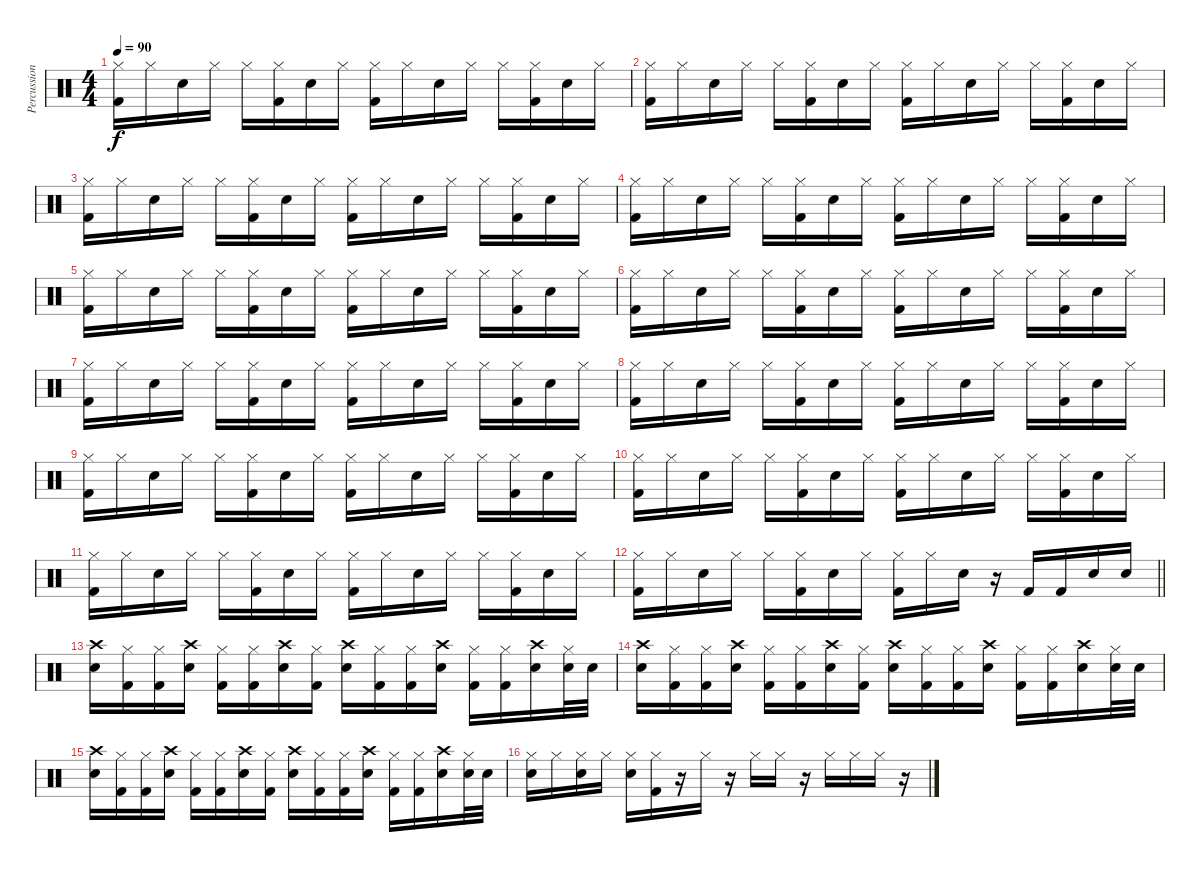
\track ("Percussion" "Percussion") {instrument percussion}
\staff {score}
\articulation defaults
\ts (4 4)
\tempo 90
\clef neutral
\ks c
("Hi-Hat (closed)" "Kick (hit) 2").16{dy f} "Hi-Hat (closed)".16 "Snare (hit) 2".16 "Hi-Hat (closed)".16 "Hi-Hat (closed)".16 ("Hi-Hat (closed)" "Kick (hit) 2").16 "Snare (hit) 2".16 "Hi-Hat (closed)".16 ("Hi-Hat (closed)" "Kick (hit) 2").16 "Hi-Hat (closed)".16 "Snare (hit) 2".16 "Hi-Hat (closed)".16 "Hi-Hat (closed)".16 ("Hi-Hat (closed)" "Kick (hit) 2").16 "Snare (hit) 2".16 "Hi-Hat (closed)".16 |
("Hi-Hat (closed)" "Kick (hit) 2").16 "Hi-Hat (closed)".16 "Snare (hit) 2".16 "Hi-Hat (closed)".16 "Hi-Hat (closed)".16 ("Hi-Hat (closed)" "Kick (hit) 2").16 "Snare (hit) 2".16 "Hi-Hat (closed)".16 ("Hi-Hat (closed)" "Kick (hit) 2").16 "Hi-Hat (closed)".16 "Snare (hit) 2".16 "Hi-Hat (closed)".16 "Hi-Hat (closed)".16 ("Hi-Hat (closed)" "Kick (hit) 2").16 "Snare (hit) 2".16 "Hi-Hat (closed)".16 |
("Hi-Hat (closed)" "Kick (hit) 2").16 "Hi-Hat (closed)".16 "Snare (hit) 2".16 "Hi-Hat (closed)".16 "Hi-Hat (closed)".16 ("Hi-Hat (closed)" "Kick (hit) 2").16 "Snare (hit) 2".16 "Hi-Hat (closed)".16 ("Hi-Hat (closed)" "Kick (hit) 2").16 "Hi-Hat (closed)".16 "Snare (hit) 2".16 "Hi-Hat (closed)".16 "Hi-Hat (closed)".16 ("Hi-Hat (closed)" "Kick (hit) 2").16 "Snare (hit) 2".16 "Hi-Hat (closed)".16 |
("Hi-Hat (closed)" "Kick (hit) 2").16 "Hi-Hat (closed)".16 "Snare (hit) 2".16 "Hi-Hat (closed)".16 "Hi-Hat (closed)".16 ("Hi-Hat (closed)" "Kick (hit) 2").16 "Snare (hit) 2".16 "Hi-Hat (closed)".16 ("Hi-Hat (closed)" "Kick (hit) 2").16 "Hi-Hat (closed)".16 "Snare (hit) 2".16 "Hi-Hat (closed)".16 "Hi-Hat (closed)".16 ("Hi-Hat (closed)" "Kick (hit) 2").16 "Snare (hit) 2".16 "Hi-Hat (closed)".16 |
("Hi-Hat (closed)" "Kick (hit) 2").16 "Hi-Hat (closed)".16 "Snare (hit) 2".16 "Hi-Hat (closed)".16 "Hi-Hat (closed)".16 ("Hi-Hat (closed)" "Kick (hit) 2").16 "Snare (hit) 2".16 "Hi-Hat (closed)".16 ("Hi-Hat (closed)" "Kick (hit) 2").16 "Hi-Hat (closed)".16 "Snare (hit) 2".16 "Hi-Hat (closed)".16 "Hi-Hat (closed)".16 ("Hi-Hat (closed)" "Kick (hit) 2").16 "Snare (hit) 2".16 "Hi-Hat (closed)".16 |
("Hi-Hat (closed)" "Kick (hit) 2").16 "Hi-Hat (closed)".16 "Snare (hit) 2".16 "Hi-Hat (closed)".16 "Hi-Hat (closed)".16 ("Hi-Hat (closed)" "Kick (hit) 2").16 "Snare (hit) 2".16 "Hi-Hat (closed)".16 ("Hi-Hat (closed)" "Kick (hit) 2").16 "Hi-Hat (closed)".16 "Snare (hit) 2".16 "Hi-Hat (closed)".16 "Hi-Hat (closed)".16 ("Hi-Hat (closed)" "Kick (hit) 2").16 "Snare (hit) 2".16 "Hi-Hat (closed)".16 |
("Hi-Hat (closed)" "Kick (hit) 2").16 "Hi-Hat (closed)".16 "Snare (hit) 2".16 "Hi-Hat (closed)".16 "Hi-Hat (closed)".16 ("Hi-Hat (closed)" "Kick (hit) 2").16 "Snare (hit) 2".16 "Hi-Hat (closed)".16 ("Hi-Hat (closed)" "Kick (hit) 2").16 "Hi-Hat (closed)".16 "Snare (hit) 2".16 "Hi-Hat (closed)".16 "Hi-Hat (closed)".16 ("Hi-Hat (closed)" "Kick (hit) 2").16 "Snare (hit) 2".16 "Hi-Hat (closed)".16 |
("Hi-Hat (closed)" "Kick (hit) 2").16 "Hi-Hat (closed)".16 "Snare (hit) 2".16 "Hi-Hat (closed)".16 "Hi-Hat (closed)".16 ("Hi-Hat (closed)" "Kick (hit) 2").16 "Snare (hit) 2".16 "Hi-Hat (closed)".16 ("Hi-Hat (closed)" "Kick (hit) 2").16 "Hi-Hat (closed)".16 "Snare (hit) 2".16 "Hi-Hat (closed)".16 "Hi-Hat (closed)".16 ("Hi-Hat (closed)" "Kick (hit) 2").16 "Snare (hit) 2".16 "Hi-Hat (closed)".16 |
("Hi-Hat (closed)" "Kick (hit) 2").16 "Hi-Hat (closed)".16 "Snare (hit) 2".16 "Hi-Hat (closed)".16 "Hi-Hat (closed)".16 ("Hi-Hat (closed)" "Kick (hit) 2").16 "Snare (hit) 2".16 "Hi-Hat (closed)".16 ("Hi-Hat (closed)" "Kick (hit) 2").16 "Hi-Hat (closed)".16 "Snare (hit) 2".16 "Hi-Hat (closed)".16 "Hi-Hat (closed)".16 ("Hi-Hat (closed)" "Kick (hit) 2").16 "Snare (hit) 2".16 "Hi-Hat (closed)".16 |
("Hi-Hat (closed)" "Kick (hit) 2").16 "Hi-Hat (closed)".16 "Snare (hit) 2".16 "Hi-Hat (closed)".16 "Hi-Hat (closed)".16 ("Hi-Hat (closed)" "Kick (hit) 2").16 "Snare (hit) 2".16 "Hi-Hat (closed)".16 ("Hi-Hat (closed)" "Kick (hit) 2").16 "Hi-Hat (closed)".16 "Snare (hit) 2".16 "Hi-Hat (closed)".16 "Hi-Hat (closed)".16 ("Hi-Hat (closed)" "Kick (hit) 2").16 "Snare (hit) 2".16 "Hi-Hat (closed)".16 |
("Hi-Hat (closed)" "Kick (hit) 2").16 "Hi-Hat (closed)".16 "Snare (hit) 2".16 "Hi-Hat (closed)".16 "Hi-Hat (closed)".16 ("Hi-Hat (closed)" "Kick (hit) 2").16 "Snare (hit) 2".16 "Hi-Hat (closed)".16 ("Hi-Hat (closed)" "Kick (hit) 2").16 "Hi-Hat (closed)".16 "Snare (hit) 2".16 "Hi-Hat (closed)".16 "Hi-Hat (closed)".16 ("Hi-Hat (closed)" "Kick (hit) 2").16 "Snare (hit) 2".16 "Hi-Hat (closed)".16 |
\barLineRight lightlight
("Hi-Hat (closed)" "Kick (hit) 2").16 "Hi-Hat (closed)".16 "Snare (hit) 2".16 "Hi-Hat (closed)".16 "Hi-Hat (closed)".16 ("Hi-Hat (closed)" "Kick (hit) 2").16 "Snare (hit) 2".16 "Hi-Hat (closed)".16 ("Hi-Hat (closed)" "Kick (hit) 2").16 "Hi-Hat (closed)".16 "Snare (hit) 2".16 r.16 "Kick (hit) 2".16 "Kick (hit) 2".16 "Snare (hit) 2".16 "Snare (hit) 2".16 |
("Crash high (hit)" "Snare (hit) 2").16 ("Hi-Hat (closed)" "Kick (hit) 2").16 ("Hi-Hat (closed)" "Kick (hit) 2").16 ("Crash high (hit)" "Snare (hit) 2").16 ("Hi-Hat (closed)" "Kick (hit) 2").16 ("Hi-Hat (closed)" "Kick (hit) 2").16 ("Crash high (hit)" "Snare (hit) 2").16 ("Hi-Hat (closed)" "Kick (hit) 2").16 ("Crash high (hit)" "Snare (hit) 2").16 ("Hi-Hat (closed)" "Kick (hit) 2").16 ("Hi-Hat (closed)" "Kick (hit) 2").16 ("Crash high (hit)" "Snare (hit) 2").16 ("Hi-Hat (closed)" "Kick (hit) 2").16 ("Hi-Hat (closed)" "Kick (hit) 2").16 ("Crash high (hit)" "Snare (hit) 2").16 ("Hi-Hat (closed)" "Snare (hit) 2").32 "Snare (hit) 2".32 |
("Crash high (hit)" "Snare (hit) 2").16 ("Hi-Hat (closed)" "Kick (hit) 2").16 ("Hi-Hat (closed)" "Kick (hit) 2").16 ("Crash high (hit)" "Snare (hit) 2").16 ("Hi-Hat (closed)" "Kick (hit) 2").16 ("Hi-Hat (closed)" "Kick (hit) 2").16 ("Crash high (hit)" "Snare (hit) 2").16 ("Hi-Hat (closed)" "Kick (hit) 2").16 ("Crash high (hit)" "Snare (hit) 2").16 ("Hi-Hat (closed)" "Kick (hit) 2").16 ("Hi-Hat (closed)" "Kick (hit) 2").16 ("Crash high (hit)" "Snare (hit) 2").16 ("Hi-Hat (closed)" "Kick (hit) 2").16 ("Hi-Hat (closed)" "Kick (hit) 2").16 ("Crash high (hit)" "Snare (hit) 2").16 ("Hi-Hat (closed)" "Snare (hit) 2").32 "Snare (hit) 2".32 |
("Crash high (hit)" "Snare (hit) 2").16 ("Hi-Hat (closed)" "Kick (hit) 2").16 ("Hi-Hat (closed)" "Kick (hit) 2").16 ("Crash high (hit)" "Snare (hit) 2").16 ("Hi-Hat (closed)" "Kick (hit) 2").16 ("Hi-Hat (closed)" "Kick (hit) 2").16 ("Crash high (hit)" "Snare (hit) 2").16 ("Hi-Hat (closed)" "Kick (hit) 2").16 ("Crash high (hit)" "Snare (hit) 2").16 ("Hi-Hat (closed)" "Kick (hit) 2").16 ("Hi-Hat (closed)" "Kick (hit) 2").16 ("Crash high (hit)" "Snare (hit) 2").16 ("Hi-Hat (closed)" "Kick (hit) 2").16 ("Hi-Hat (closed)" "Kick (hit) 2").16 ("Crash high (hit)" "Snare (hit) 2").16 ("Hi-Hat (closed)" "Snare (hit) 2").32 "Snare (hit) 2".32 |
("Hi-Hat (closed)" "Snare (hit) 2").16 "Hi-Hat (closed)".16 ("Hi-Hat (closed)" "Snare (hit) 2").16 "Hi-Hat (closed)".16 ("Hi-Hat (closed)" "Snare (hit) 2").16 ("Hi-Hat (closed)" "Kick (hit) 2").16 r.16 "Hi-Hat (closed)".16 r.16 "Hi-Hat (closed)".16 "Hi-Hat (closed)".16 r.16 "Hi-Hat (closed)".16 "Hi-Hat (closed)".16 "Hi-Hat (closed)".16 r.16
